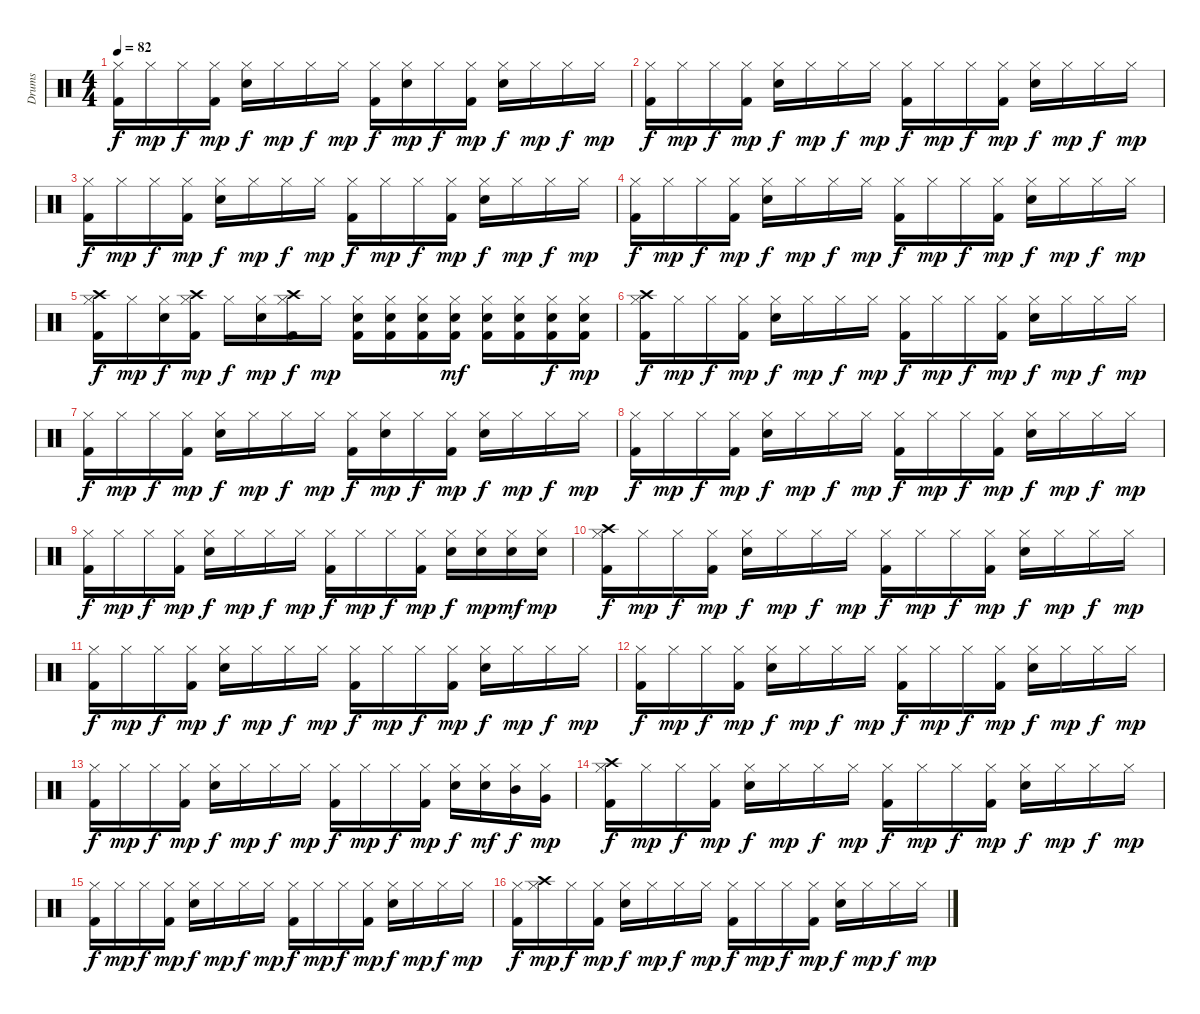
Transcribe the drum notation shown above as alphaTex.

\track ("Drums" "Drums") {instrument percussion}
\staff {score}
\articulation defaults
\ts (4 4)
\tempo 82
\clef neutral
\ks c
("Hi-Hat (closed)" "Kick (hit) 2").16{dy f} "Hi-Hat (closed)".16{dy mp} "Hi-Hat (closed)".16{dy f} ("Hi-Hat (closed)" "Kick (hit) 2").16{dy mp} ("Hi-Hat (closed)" "Snare (hit) 2").16{dy f} "Hi-Hat (closed)".16{dy mp} "Hi-Hat (closed)".16{dy f} "Hi-Hat (closed)".16{dy mp} ("Hi-Hat (closed)" "Kick (hit) 2").16{dy f} ("Hi-Hat (closed)" "Snare (hit) 2").16{dy mp} "Hi-Hat (closed)".16{dy f} ("Hi-Hat (closed)" "Kick (hit) 2").16{dy mp} ("Hi-Hat (closed)" "Snare (hit) 2").16{dy f} "Hi-Hat (closed)".16{dy mp} "Hi-Hat (closed)".16{dy f} "Hi-Hat (closed)".16{dy mp} |
("Hi-Hat (closed)" "Kick (hit) 2").16{dy f} "Hi-Hat (closed)".16{dy mp} "Hi-Hat (closed)".16{dy f} ("Hi-Hat (closed)" "Kick (hit) 2").16{dy mp} ("Hi-Hat (closed)" "Snare (hit) 2").16{dy f} "Hi-Hat (closed)".16{dy mp} "Hi-Hat (closed)".16{dy f} "Hi-Hat (closed)".16{dy mp} ("Hi-Hat (closed)" "Kick (hit) 2").16{dy f} "Hi-Hat (closed)".16{dy mp} "Hi-Hat (closed)".16{dy f} ("Hi-Hat (closed)" "Kick (hit) 2").16{dy mp} ("Hi-Hat (closed)" "Snare (hit) 2").16{dy f} "Hi-Hat (closed)".16{dy mp} "Hi-Hat (closed)".16{dy f} "Hi-Hat (closed)".16{dy mp} |
("Hi-Hat (closed)" "Kick (hit) 2").16{dy f} "Hi-Hat (closed)".16{dy mp} "Hi-Hat (closed)".16{dy f} ("Hi-Hat (closed)" "Kick (hit) 2").16{dy mp} ("Hi-Hat (closed)" "Snare (hit) 2").16{dy f} "Hi-Hat (closed)".16{dy mp} "Hi-Hat (closed)".16{dy f} "Hi-Hat (closed)".16{dy mp} ("Hi-Hat (closed)" "Kick (hit) 2").16{dy f} "Hi-Hat (closed)".16{dy mp} "Hi-Hat (closed)".16{dy f} ("Hi-Hat (closed)" "Kick (hit) 2").16{dy mp} ("Hi-Hat (closed)" "Snare (hit) 2").16{dy f} "Hi-Hat (closed)".16{dy mp} "Hi-Hat (closed)".16{dy f} "Hi-Hat (closed)".16{dy mp} |
("Hi-Hat (closed)" "Kick (hit) 2").16{dy f} "Hi-Hat (closed)".16{dy mp} "Hi-Hat (closed)".16{dy f} ("Hi-Hat (closed)" "Kick (hit) 2").16{dy mp} ("Hi-Hat (closed)" "Snare (hit) 2").16{dy f} "Hi-Hat (closed)".16{dy mp} "Hi-Hat (closed)".16{dy f} "Hi-Hat (closed)".16{dy mp} ("Hi-Hat (closed)" "Kick (hit) 2").16{dy f} "Hi-Hat (closed)".16{dy mp} "Hi-Hat (closed)".16{dy f} ("Hi-Hat (closed)" "Kick (hit) 2").16{dy mp} ("Hi-Hat (closed)" "Snare (hit) 2").16{dy f} "Hi-Hat (closed)".16{dy mp} "Hi-Hat (closed)".16{dy f} "Hi-Hat (closed)".16{dy mp} |
("Hi-Hat (closed)" "Crash high (hit)" "Kick (hit) 2").16{dy f} "Hi-Hat (closed)".16{dy mp} ("Hi-Hat (closed)" "Snare (hit) 2").16{dy f} ("Hi-Hat (closed)" "Crash high (hit)" "Kick (hit) 2").16{dy mp} "Hi-Hat (closed)".16{dy f} ("Hi-Hat (closed)" "Snare (hit) 2").16{dy mp} ("Hi-Hat (closed)" "Crash high (hit)" "Kick (hit) 2").16{dy f} "Hi-Hat (closed)".16{dy mp} ("Hi-Hat (closed)" "Snare (hit) 2" "Kick (hit) 2").16 ("Hi-Hat (closed)" "Snare (hit) 2" "Kick (hit) 2").16 ("Hi-Hat (closed)" "Snare (hit) 2" "Kick (hit) 2").16 ("Hi-Hat (closed)" "Snare (hit) 2" "Kick (hit) 2").16{dy mf} ("Hi-Hat (closed)" "Snare (hit) 2" "Kick (hit) 2").16 ("Hi-Hat (closed)" "Snare (hit) 2" "Kick (hit) 2").16 ("Hi-Hat (closed)" "Snare (hit) 2" "Kick (hit) 2").16{dy f} ("Hi-Hat (closed)" "Snare (hit) 2" "Kick (hit) 2").16{dy mp} |
("Hi-Hat (closed)" "Crash high (hit)" "Kick (hit) 2").16{dy f} "Hi-Hat (closed)".16{dy mp} "Hi-Hat (closed)".16{dy f} ("Hi-Hat (closed)" "Kick (hit) 2").16{dy mp} ("Hi-Hat (closed)" "Snare (hit) 2").16{dy f} "Hi-Hat (closed)".16{dy mp} "Hi-Hat (closed)".16{dy f} "Hi-Hat (closed)".16{dy mp} ("Hi-Hat (closed)" "Kick (hit) 2").16{dy f} "Hi-Hat (closed)".16{dy mp} "Hi-Hat (closed)".16{dy f} ("Hi-Hat (closed)" "Kick (hit) 2").16{dy mp} ("Hi-Hat (closed)" "Snare (hit) 2").16{dy f} "Hi-Hat (closed)".16{dy mp} "Hi-Hat (closed)".16{dy f} "Hi-Hat (closed)".16{dy mp} |
("Hi-Hat (closed)" "Kick (hit) 2").16{dy f} "Hi-Hat (closed)".16{dy mp} "Hi-Hat (closed)".16{dy f} ("Hi-Hat (closed)" "Kick (hit) 2").16{dy mp} ("Hi-Hat (closed)" "Snare (hit) 2").16{dy f} "Hi-Hat (closed)".16{dy mp} "Hi-Hat (closed)".16{dy f} "Hi-Hat (closed)".16{dy mp} ("Hi-Hat (closed)" "Kick (hit) 2").16{dy f} ("Hi-Hat (closed)" "Snare (hit) 2").16{dy mp} "Hi-Hat (closed)".16{dy f} ("Hi-Hat (closed)" "Kick (hit) 2").16{dy mp} ("Hi-Hat (closed)" "Snare (hit) 2").16{dy f} "Hi-Hat (closed)".16{dy mp} "Hi-Hat (closed)".16{dy f} "Hi-Hat (closed)".16{dy mp} |
("Hi-Hat (closed)" "Kick (hit) 2").16{dy f} "Hi-Hat (closed)".16{dy mp} "Hi-Hat (closed)".16{dy f} ("Hi-Hat (closed)" "Kick (hit) 2").16{dy mp} ("Hi-Hat (closed)" "Snare (hit) 2").16{dy f} "Hi-Hat (closed)".16{dy mp} "Hi-Hat (closed)".16{dy f} "Hi-Hat (closed)".16{dy mp} ("Hi-Hat (closed)" "Kick (hit) 2").16{dy f} "Hi-Hat (closed)".16{dy mp} "Hi-Hat (closed)".16{dy f} ("Hi-Hat (closed)" "Kick (hit) 2").16{dy mp} ("Hi-Hat (closed)" "Snare (hit) 2").16{dy f} "Hi-Hat (closed)".16{dy mp} "Hi-Hat (closed)".16{dy f} "Hi-Hat (closed)".16{dy mp} |
("Hi-Hat (closed)" "Kick (hit) 2").16{dy f} "Hi-Hat (closed)".16{dy mp} "Hi-Hat (closed)".16{dy f} ("Hi-Hat (closed)" "Kick (hit) 2").16{dy mp} ("Hi-Hat (closed)" "Snare (hit) 2").16{dy f} "Hi-Hat (closed)".16{dy mp} "Hi-Hat (closed)".16{dy f} "Hi-Hat (closed)".16{dy mp} ("Hi-Hat (closed)" "Kick (hit) 2").16{dy f} "Hi-Hat (closed)".16{dy mp} "Hi-Hat (closed)".16{dy f} ("Hi-Hat (closed)" "Kick (hit) 2").16{dy mp} ("Hi-Hat (closed)" "Snare (hit) 2").16{dy f} ("Hi-Hat (closed)" "Snare (hit) 2").16{dy mp} ("Hi-Hat (closed)" "Snare (hit) 2").16{dy mf} ("Hi-Hat (closed)" "Snare (hit) 2").16{dy mp} |
("Hi-Hat (closed)" "Crash high (hit)" "Kick (hit) 2").16{dy f} "Hi-Hat (closed)".16{dy mp} "Hi-Hat (closed)".16{dy f} ("Hi-Hat (closed)" "Kick (hit) 2").16{dy mp} ("Hi-Hat (closed)" "Snare (hit) 2").16{dy f} "Hi-Hat (closed)".16{dy mp} "Hi-Hat (closed)".16{dy f} "Hi-Hat (closed)".16{dy mp} ("Hi-Hat (closed)" "Kick (hit) 2").16{dy f} "Hi-Hat (closed)".16{dy mp} "Hi-Hat (closed)".16{dy f} ("Hi-Hat (closed)" "Kick (hit) 2").16{dy mp} ("Hi-Hat (closed)" "Snare (hit) 2").16{dy f} "Hi-Hat (closed)".16{dy mp} "Hi-Hat (closed)".16{dy f} "Hi-Hat (closed)".16{dy mp} |
("Hi-Hat (closed)" "Kick (hit) 2").16{dy f} "Hi-Hat (closed)".16{dy mp} "Hi-Hat (closed)".16{dy f} ("Hi-Hat (closed)" "Kick (hit) 2").16{dy mp} ("Hi-Hat (closed)" "Snare (hit) 2").16{dy f} "Hi-Hat (closed)".16{dy mp} "Hi-Hat (closed)".16{dy f} "Hi-Hat (closed)".16{dy mp} ("Hi-Hat (closed)" "Kick (hit) 2").16{dy f} "Hi-Hat (closed)".16{dy mp} "Hi-Hat (closed)".16{dy f} ("Hi-Hat (closed)" "Kick (hit) 2").16{dy mp} ("Hi-Hat (closed)" "Snare (hit) 2").16{dy f} "Hi-Hat (closed)".16{dy mp} "Hi-Hat (closed)".16{dy f} "Hi-Hat (closed)".16{dy mp} |
("Hi-Hat (closed)" "Kick (hit) 2").16{dy f} "Hi-Hat (closed)".16{dy mp} "Hi-Hat (closed)".16{dy f} ("Hi-Hat (closed)" "Kick (hit) 2").16{dy mp} ("Hi-Hat (closed)" "Snare (hit) 2").16{dy f} "Hi-Hat (closed)".16{dy mp} "Hi-Hat (closed)".16{dy f} "Hi-Hat (closed)".16{dy mp} ("Hi-Hat (closed)" "Kick (hit) 2").16{dy f} "Hi-Hat (closed)".16{dy mp} "Hi-Hat (closed)".16{dy f} ("Hi-Hat (closed)" "Kick (hit) 2").16{dy mp} ("Hi-Hat (closed)" "Snare (hit) 2").16{dy f} "Hi-Hat (closed)".16{dy mp} "Hi-Hat (closed)".16{dy f} "Hi-Hat (closed)".16{dy mp} |
("Hi-Hat (closed)" "Kick (hit) 2").16{dy f} "Hi-Hat (closed)".16{dy mp} "Hi-Hat (closed)".16{dy f} ("Hi-Hat (closed)" "Kick (hit) 2").16{dy mp} ("Hi-Hat (closed)" "Snare (hit) 2").16{dy f} "Hi-Hat (closed)".16{dy mp} "Hi-Hat (closed)".16{dy f} "Hi-Hat (closed)".16{dy mp} ("Hi-Hat (closed)" "Kick (hit) 2").16{dy f} "Hi-Hat (closed)".16{dy mp} "Hi-Hat (closed)".16{dy f} ("Hi-Hat (closed)" "Kick (hit) 2").16{dy mp} ("Hi-Hat (closed)" "Snare (hit) 2").16{dy f} ("Hi-Hat (closed)" "Snare (hit) 2").16{dy mf} ("Hi-Hat (closed)" "Mid Tom (hit)").16{dy f} ("Hi-Hat (closed)" "Very Low Tom (hit)").16{dy mp} |
("Hi-Hat (closed)" "Crash high (hit)" "Kick (hit) 2").16{dy f} "Hi-Hat (closed)".16{dy mp} "Hi-Hat (closed)".16{dy f} ("Hi-Hat (closed)" "Kick (hit) 2").16{dy mp} ("Hi-Hat (closed)" "Snare (hit) 2").16{dy f} "Hi-Hat (closed)".16{dy mp} "Hi-Hat (closed)".16{dy f} "Hi-Hat (closed)".16{dy mp} ("Hi-Hat (closed)" "Kick (hit) 2").16{dy f} "Hi-Hat (closed)".16{dy mp} "Hi-Hat (closed)".16{dy f} ("Hi-Hat (closed)" "Kick (hit) 2").16{dy mp} ("Hi-Hat (closed)" "Snare (hit) 2").16{dy f} "Hi-Hat (closed)".16{dy mp} "Hi-Hat (closed)".16{dy f} "Hi-Hat (closed)".16{dy mp} |
("Hi-Hat (closed)" "Kick (hit) 2").16{dy f} "Hi-Hat (closed)".16{dy mp} "Hi-Hat (closed)".16{dy f} ("Hi-Hat (closed)" "Kick (hit) 2").16{dy mp} ("Hi-Hat (closed)" "Snare (hit) 2").16{dy f} "Hi-Hat (closed)".16{dy mp} "Hi-Hat (closed)".16{dy f} "Hi-Hat (closed)".16{dy mp} ("Hi-Hat (closed)" "Kick (hit) 2").16{dy f} "Hi-Hat (closed)".16{dy mp} "Hi-Hat (closed)".16{dy f} ("Hi-Hat (closed)" "Kick (hit) 2").16{dy mp} ("Hi-Hat (closed)" "Snare (hit) 2").16{dy f} "Hi-Hat (closed)".16{dy mp} "Hi-Hat (closed)".16{dy f} "Hi-Hat (closed)".16{dy mp} |
("Hi-Hat (closed)" "Kick (hit) 2").16{dy f} ("Hi-Hat (closed)" "Crash high (hit)").16{dy mp} "Hi-Hat (closed)".16{dy f} ("Hi-Hat (closed)" "Kick (hit) 2").16{dy mp} ("Hi-Hat (closed)" "Snare (hit) 2").16{dy f} "Hi-Hat (closed)".16{dy mp} "Hi-Hat (closed)".16{dy f} "Hi-Hat (closed)".16{dy mp} ("Hi-Hat (closed)" "Kick (hit) 2").16{dy f} "Hi-Hat (closed)".16{dy mp} "Hi-Hat (closed)".16{dy f} ("Hi-Hat (closed)" "Kick (hit) 2").16{dy mp} ("Hi-Hat (closed)" "Snare (hit) 2").16{dy f} "Hi-Hat (closed)".16{dy mp} "Hi-Hat (closed)".16{dy f} "Hi-Hat (closed)".16{dy mp}
